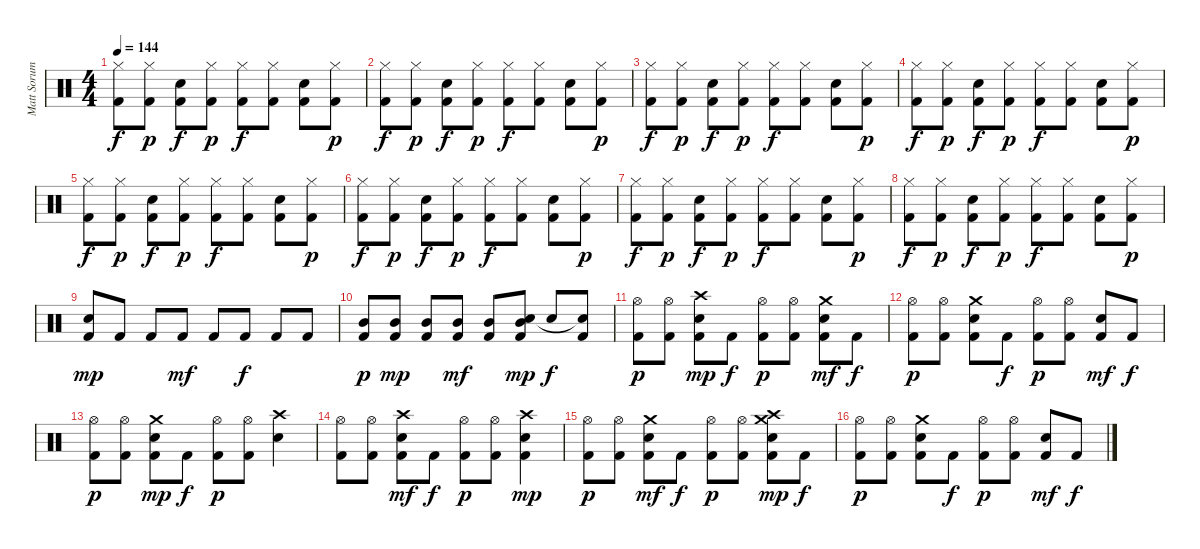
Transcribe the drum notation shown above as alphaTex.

\track ("Matt Sorum" "Matt Sorum") {instrument percussion}
\staff {score}
\articulation defaults
\ts (4 4)
\tempo 144
\clef neutral
\ks c
("Kick (hit) 2" "Hi-Hat (closed)").8{dy f} ("Kick (hit) 2" "Hi-Hat (closed)").8{dy p} ("Kick (hit) 2" "Snare (hit) 2").8{dy f} ("Kick (hit) 2" "Hi-Hat (closed)").8{dy p} ("Kick (hit) 2" "Hi-Hat (closed)").8{dy f} ("Kick (hit) 2" "Hi-Hat (closed)").8 ("Kick (hit) 2" "Snare (hit) 2").8 ("Kick (hit) 2" "Hi-Hat (closed)").8{dy p} |
("Kick (hit) 2" "Hi-Hat (closed)").8{dy f} ("Kick (hit) 2" "Hi-Hat (closed)").8{dy p} ("Kick (hit) 2" "Snare (hit) 2").8{dy f} ("Kick (hit) 2" "Hi-Hat (closed)").8{dy p} ("Kick (hit) 2" "Hi-Hat (closed)").8{dy f} ("Kick (hit) 2" "Hi-Hat (closed)").8 ("Kick (hit) 2" "Snare (hit) 2").8 ("Kick (hit) 2" "Hi-Hat (closed)").8{dy p} |
("Kick (hit) 2" "Hi-Hat (closed)").8{dy f} ("Kick (hit) 2" "Hi-Hat (closed)").8{dy p} ("Kick (hit) 2" "Snare (hit) 2").8{dy f} ("Kick (hit) 2" "Hi-Hat (closed)").8{dy p} ("Kick (hit) 2" "Hi-Hat (closed)").8{dy f} ("Kick (hit) 2" "Hi-Hat (closed)").8 ("Kick (hit) 2" "Snare (hit) 2").8 ("Kick (hit) 2" "Hi-Hat (closed)").8{dy p} |
("Kick (hit) 2" "Hi-Hat (closed)").8{dy f} ("Kick (hit) 2" "Hi-Hat (closed)").8{dy p} ("Kick (hit) 2" "Snare (hit) 2").8{dy f} ("Kick (hit) 2" "Hi-Hat (closed)").8{dy p} ("Kick (hit) 2" "Hi-Hat (closed)").8{dy f} ("Kick (hit) 2" "Hi-Hat (closed)").8 ("Kick (hit) 2" "Snare (hit) 2").8 ("Kick (hit) 2" "Hi-Hat (closed)").8{dy p} |
("Kick (hit) 2" "Hi-Hat (closed)").8{dy f} ("Kick (hit) 2" "Hi-Hat (closed)").8{dy p} ("Kick (hit) 2" "Snare (hit) 2").8{dy f} ("Kick (hit) 2" "Hi-Hat (closed)").8{dy p} ("Kick (hit) 2" "Hi-Hat (closed)").8{dy f} ("Kick (hit) 2" "Hi-Hat (closed)").8 ("Kick (hit) 2" "Snare (hit) 2").8 ("Kick (hit) 2" "Hi-Hat (closed)").8{dy p} |
("Kick (hit) 2" "Hi-Hat (closed)").8{dy f} ("Kick (hit) 2" "Hi-Hat (closed)").8{dy p} ("Kick (hit) 2" "Snare (hit) 2").8{dy f} ("Kick (hit) 2" "Hi-Hat (closed)").8{dy p} ("Kick (hit) 2" "Hi-Hat (closed)").8{dy f} ("Kick (hit) 2" "Hi-Hat (closed)").8 ("Kick (hit) 2" "Snare (hit) 2").8 ("Kick (hit) 2" "Hi-Hat (closed)").8{dy p} |
("Kick (hit) 2" "Hi-Hat (closed)").8{dy f} ("Kick (hit) 2" "Hi-Hat (closed)").8{dy p} ("Kick (hit) 2" "Snare (hit) 2").8{dy f} ("Kick (hit) 2" "Hi-Hat (closed)").8{dy p} ("Kick (hit) 2" "Hi-Hat (closed)").8{dy f} ("Kick (hit) 2" "Hi-Hat (closed)").8 ("Kick (hit) 2" "Snare (hit) 2").8 ("Kick (hit) 2" "Hi-Hat (closed)").8{dy p} |
("Kick (hit) 2" "Hi-Hat (closed)").8{dy f} ("Kick (hit) 2" "Hi-Hat (closed)").8{dy p} ("Kick (hit) 2" "Snare (hit) 2").8{dy f} ("Kick (hit) 2" "Hi-Hat (closed)").8{dy p} ("Kick (hit) 2" "Hi-Hat (closed)").8{dy f} ("Kick (hit) 2" "Hi-Hat (closed)").8 ("Kick (hit) 2" "Snare (hit) 2").8 ("Kick (hit) 2" "Hi-Hat (closed)").8{dy p} |
("Kick (hit) 2" "Snare (hit) 2").8{dy mp} "Kick (hit) 2".8 "Kick (hit) 2".8 "Kick (hit) 2".8{dy mf} "Kick (hit) 2".8 "Kick (hit) 2".8{dy f} "Kick (hit) 2".8 "Kick (hit) 2".8 |
("Kick (hit) 2" "Mid Tom (hit)").8{dy p} ("Kick (hit) 2" "Mid Tom (hit)").8{dy mp} ("Kick (hit) 2" "Mid Tom (hit)").8 ("Kick (hit) 2" "Mid Tom (hit)").8{dy mf} ("Kick (hit) 2" "Mid Tom (hit)").8 ("Kick (hit) 2" "Snare (hit) 2" "Mid Tom (hit)").8{dy mp} "Snare (hit) 2".8{dy f} ("Kick (hit) 2" "Snare (hit)"{t}).8 |
("Kick (hit) 2" "Hi-Hat (open)").8{dy p} ("Kick (hit) 2" "Hi-Hat (open)").8 ("Kick (hit) 2" "Snare (hit) 2" "Crash high (hit)").8{dy mp} "Kick (hit) 2".8{dy f} ("Kick (hit) 2" "Hi-Hat (open)").8{dy p} ("Kick (hit) 2" "Hi-Hat (open)").8 ("Kick (hit) 2" "Snare (hit) 2" "Crash medium (hit)").8{dy mf} "Kick (hit) 2".8{dy f} |
("Kick (hit) 2" "Hi-Hat (open)").8{dy p} ("Kick (hit) 2" "Hi-Hat (open)").8 ("Kick (hit) 2" "Snare (hit) 2" "Crash medium (hit)").8 "Kick (hit) 2".8{dy f} ("Kick (hit) 2" "Hi-Hat (open)").8{dy p} ("Kick (hit) 2" "Hi-Hat (open)").8 ("Kick (hit) 2" "Snare (hit) 2").8{dy mf} "Kick (hit) 2".8{dy f} |
("Kick (hit) 2" "Hi-Hat (open)").8{dy p} ("Kick (hit) 2" "Hi-Hat (open)").8 ("Kick (hit) 2" "Snare (hit) 2" "Crash medium (hit)").8{dy mp} "Kick (hit) 2".8{dy f} ("Kick (hit) 2" "Hi-Hat (open)").8{dy p} ("Kick (hit) 2" "Hi-Hat (open)").8 ("Snare (hit) 2" "Crash high (hit)").4 |
("Kick (hit) 2" "Hi-Hat (open)").8 ("Kick (hit) 2" "Hi-Hat (open)").8 ("Kick (hit) 2" "Snare (hit) 2" "Crash high (hit)").8{dy mf} "Kick (hit) 2".8{dy f} ("Kick (hit) 2" "Hi-Hat (open)").8{dy p} ("Kick (hit) 2" "Hi-Hat (open)").8 ("Kick (hit) 2" "Snare (hit) 2" "Crash high (hit)").4{dy mp} |
("Kick (hit) 2" "Hi-Hat (open)").8{dy p} ("Kick (hit) 2" "Hi-Hat (open)").8 ("Kick (hit) 2" "Snare (hit) 2" "Crash medium (hit)").8{dy mf} "Kick (hit) 2".8{dy f} ("Kick (hit) 2" "Hi-Hat (open)").8{dy p} ("Kick (hit) 2" "Hi-Hat (open)").8 ("Kick (hit) 2" "Snare (hit) 2" "Crash high (hit)" "Crash medium (hit)").8{dy mp} "Kick (hit) 2".8{dy f} |
("Kick (hit) 2" "Hi-Hat (open)").8{dy p} ("Kick (hit) 2" "Hi-Hat (open)").8 ("Kick (hit) 2" "Snare (hit) 2" "Crash medium (hit)").8 "Kick (hit) 2".8{dy f} ("Kick (hit) 2" "Hi-Hat (open)").8{dy p} ("Kick (hit) 2" "Hi-Hat (open)").8 ("Kick (hit) 2" "Snare (hit) 2").8{dy mf} "Kick (hit) 2".8{dy f}
